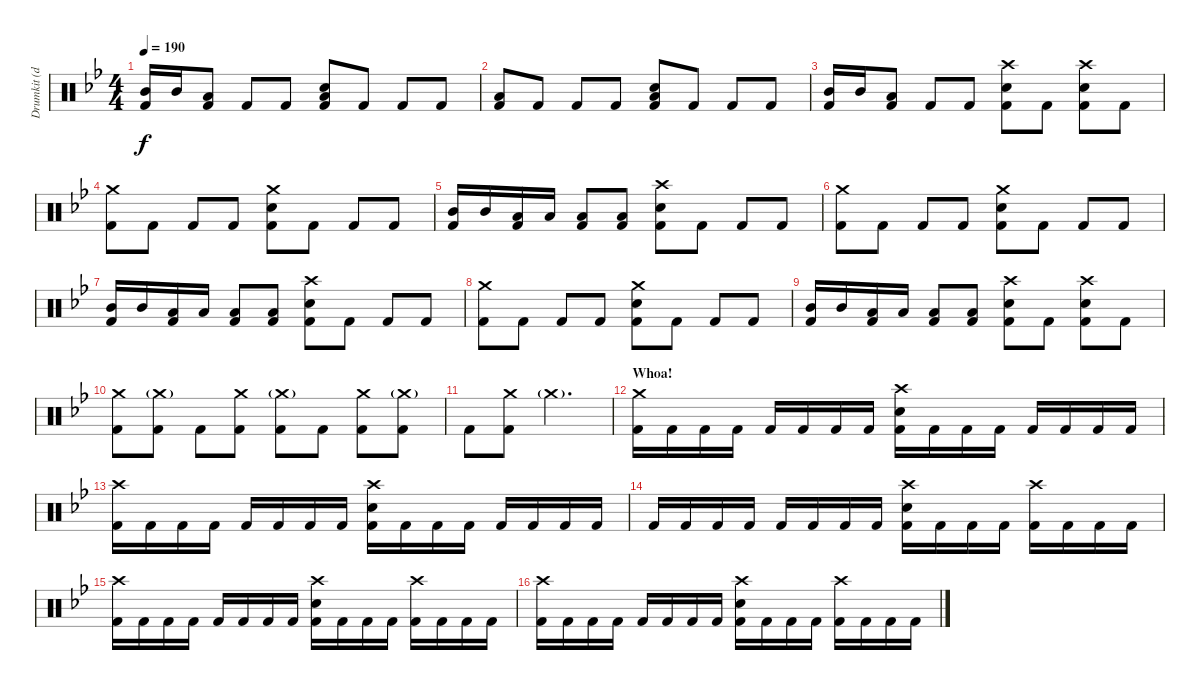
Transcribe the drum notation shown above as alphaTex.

\track ("Drumkit (don't unmute)" "Drumkit (d") {instrument percussion}
\staff {score}
\articulation defaults
\ts (4 4)
\tempo 190
\clef neutral
\ks bb
("Kick (hit) 2" "Mid Tom (hit)").16{dy f} "Mid Tom (hit)".16 ("Kick (hit) 2" "Low Tom (hit)").8 "Kick (hit) 2".8 "Kick (hit) 2".8 ("Kick (hit) 2" "Snare (hit) 2" "Low Tom (hit)").8 "Kick (hit) 2".8 "Kick (hit) 2".8 "Kick (hit) 2".8 |
("Kick (hit) 2" "Low Tom (hit)").8 "Kick (hit) 2".8 "Kick (hit) 2".8 "Kick (hit) 2".8 ("Kick (hit) 2" "Snare (hit) 2" "Low Tom (hit)").8 "Kick (hit) 2".8 "Kick (hit) 2".8 "Kick (hit) 2".8 |
("Kick (hit) 2" "Mid Tom (hit)").16 "Mid Tom (hit)".16 ("Kick (hit) 2" "Low Tom (hit)").8 "Kick (hit) 2".8 "Kick (hit) 2".8 ("Kick (hit) 2" "Snare (hit) 2" "Crash high (hit)").8 "Kick (hit) 2".8 ("Kick (hit) 2" "Snare (hit) 2" "Crash high (hit)").8 "Kick (hit) 2".8 |
("Kick (hit) 2" "Crash medium (hit)").8 "Kick (hit) 2".8 "Kick (hit) 2".8 "Kick (hit) 2".8 ("Kick (hit) 2" "Snare (hit) 2" "Crash medium (hit)").8 "Kick (hit) 2".8 "Kick (hit) 2".8 "Kick (hit) 2".8 |
("Kick (hit) 2" "Mid Tom (hit)").16 "Mid Tom (hit)".16 ("Kick (hit) 2" "Low Tom (hit)").16 "Low Tom (hit)".16 ("Kick (hit) 2" "Low Tom (hit)").8 ("Kick (hit) 2" "Low Tom (hit)").8 ("Kick (hit) 2" "Snare (hit) 2" "Crash high (hit)").8 "Kick (hit) 2".8 "Kick (hit) 2".8 "Kick (hit) 2".8 |
("Kick (hit) 2" "Crash medium (hit)").8 "Kick (hit) 2".8 "Kick (hit) 2".8 "Kick (hit) 2".8 ("Kick (hit) 2" "Snare (hit) 2" "Crash medium (hit)").8 "Kick (hit) 2".8 "Kick (hit) 2".8 "Kick (hit) 2".8 |
("Kick (hit) 2" "Mid Tom (hit)").16 "Mid Tom (hit)".16 ("Kick (hit) 2" "Low Tom (hit)").16 "Low Tom (hit)".16 ("Kick (hit) 2" "Low Tom (hit)").8 ("Kick (hit) 2" "Low Tom (hit)").8 ("Kick (hit) 2" "Snare (hit) 2" "Crash high (hit)").8 "Kick (hit) 2".8 "Kick (hit) 2".8 "Kick (hit) 2".8 |
("Kick (hit) 2" "Crash medium (hit)").8 "Kick (hit) 2".8 "Kick (hit) 2".8 "Kick (hit) 2".8 ("Kick (hit) 2" "Snare (hit) 2" "Crash medium (hit)").8 "Kick (hit) 2".8 "Kick (hit) 2".8 "Kick (hit) 2".8 |
("Kick (hit) 2" "Mid Tom (hit)").16 "Mid Tom (hit)".16 ("Kick (hit) 2" "Low Tom (hit)").16 "Low Tom (hit)".16 ("Kick (hit) 2" "Low Tom (hit)").8 ("Kick (hit) 2" "Low Tom (hit)").8 ("Kick (hit) 2" "Snare (hit) 2" "Crash high (hit)").8 "Kick (hit) 2".8 ("Kick (hit) 2" "Snare (hit) 2" "Crash high (hit)").8 "Kick (hit) 2".8 |
("Kick (hit) 2" "Crash medium (hit)").8 ("Kick (hit) 2" "Crash medium (hit)"{g}).8 "Kick (hit) 2".8 ("Kick (hit) 2" "Crash medium (hit)").8 ("Kick (hit) 2" "Crash medium (hit)"{g}).8 "Kick (hit) 2".8 ("Kick (hit) 2" "Crash medium (hit)").8 ("Kick (hit) 2" "Crash medium (hit)"{g}).8 |
"Kick (hit) 2".8 ("Kick (hit) 2" "Crash medium (hit)").8 "Crash medium (hit)"{g}.2{d} |
\section ("" "Whoa!")
("Kick (hit) 2" "Crash medium (hit)").16 "Kick (hit) 2".16 "Kick (hit) 2".16 "Kick (hit) 2".16 "Kick (hit) 2".16 "Kick (hit) 2".16 "Kick (hit) 2".16 "Kick (hit) 2".16 ("Kick (hit) 2" "Snare (hit) 2" "Crash high (hit)").16 "Kick (hit) 2".16 "Kick (hit) 2".16 "Kick (hit) 2".16 "Kick (hit) 2".16 "Kick (hit) 2".16 "Kick (hit) 2".16 "Kick (hit) 2".16 |
("Kick (hit) 2" "Crash high (hit)").16 "Kick (hit) 2".16 "Kick (hit) 2".16 "Kick (hit) 2".16 "Kick (hit) 2".16 "Kick (hit) 2".16 "Kick (hit) 2".16 "Kick (hit) 2".16 ("Kick (hit) 2" "Snare (hit) 2" "Crash high (hit)").16 "Kick (hit) 2".16 "Kick (hit) 2".16 "Kick (hit) 2".16 "Kick (hit) 2".16 "Kick (hit) 2".16 "Kick (hit) 2".16 "Kick (hit) 2".16 |
"Kick (hit) 2".16 "Kick (hit) 2".16 "Kick (hit) 2".16 "Kick (hit) 2".16 "Kick (hit) 2".16 "Kick (hit) 2".16 "Kick (hit) 2".16 "Kick (hit) 2".16 ("Kick (hit) 2" "Snare (hit) 2" "Crash high (hit)").16 "Kick (hit) 2".16 "Kick (hit) 2".16 "Kick (hit) 2".16 ("Kick (hit) 2" "Crash high (hit)").16 "Kick (hit) 2".16 "Kick (hit) 2".16 "Kick (hit) 2".16 |
("Kick (hit) 2" "Crash high (hit)").16 "Kick (hit) 2".16 "Kick (hit) 2".16 "Kick (hit) 2".16 "Kick (hit) 2".16 "Kick (hit) 2".16 "Kick (hit) 2".16 "Kick (hit) 2".16 ("Kick (hit) 2" "Snare (hit) 2" "Crash high (hit)").16 "Kick (hit) 2".16 "Kick (hit) 2".16 "Kick (hit) 2".16 ("Kick (hit) 2" "Crash high (hit)").16 "Kick (hit) 2".16 "Kick (hit) 2".16 "Kick (hit) 2".16 |
("Kick (hit) 2" "Crash high (hit)").16 "Kick (hit) 2".16 "Kick (hit) 2".16 "Kick (hit) 2".16 "Kick (hit) 2".16 "Kick (hit) 2".16 "Kick (hit) 2".16 "Kick (hit) 2".16 ("Kick (hit) 2" "Snare (hit) 2" "Crash high (hit)").16 "Kick (hit) 2".16 "Kick (hit) 2".16 "Kick (hit) 2".16 ("Kick (hit) 2" "Crash high (hit)").16 "Kick (hit) 2".16 "Kick (hit) 2".16 "Kick (hit) 2".16
